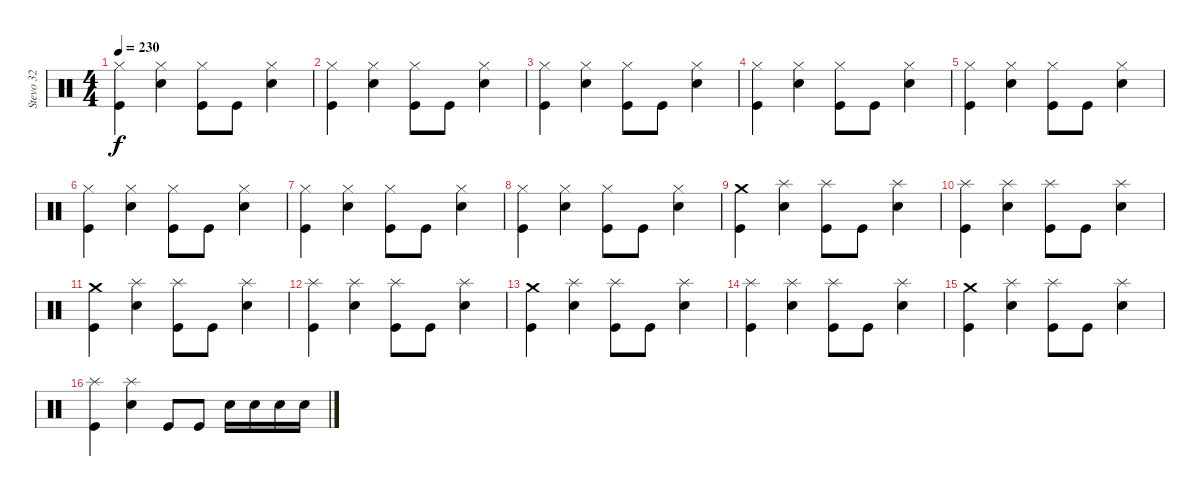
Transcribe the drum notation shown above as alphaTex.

\track ("Stevo 32" "Stevo 32") {instrument percussion}
\staff {score}
\articulation defaults
\ts (4 4)
\tempo 230
\clef neutral
\ks c
("Hi-Hat (closed)" "Kick (hit)").4{dy f} ("Hi-Hat (closed)" "Electric Snare (hit)").4 ("Hi-Hat (closed)" "Kick (hit)").8 "Kick (hit)".8 ("Hi-Hat (closed)" "Electric Snare (hit)").4 |
("Hi-Hat (closed)" "Kick (hit)").4 ("Hi-Hat (closed)" "Electric Snare (hit)").4 ("Hi-Hat (closed)" "Kick (hit)").8 "Kick (hit)".8 ("Hi-Hat (closed)" "Electric Snare (hit)").4 |
("Hi-Hat (closed)" "Kick (hit)").4 ("Hi-Hat (closed)" "Electric Snare (hit)").4 ("Hi-Hat (closed)" "Kick (hit)").8 "Kick (hit)".8 ("Hi-Hat (closed)" "Electric Snare (hit)").4 |
("Hi-Hat (closed)" "Kick (hit)").4 ("Hi-Hat (closed)" "Electric Snare (hit)").4 ("Hi-Hat (closed)" "Kick (hit)").8 "Kick (hit)".8 ("Hi-Hat (closed)" "Electric Snare (hit)").4 |
("Hi-Hat (closed)" "Kick (hit)").4 ("Hi-Hat (closed)" "Electric Snare (hit)").4 ("Hi-Hat (closed)" "Kick (hit)").8 "Kick (hit)".8 ("Hi-Hat (closed)" "Electric Snare (hit)").4 |
("Hi-Hat (closed)" "Kick (hit)").4 ("Hi-Hat (closed)" "Electric Snare (hit)").4 ("Hi-Hat (closed)" "Kick (hit)").8 "Kick (hit)".8 ("Hi-Hat (closed)" "Electric Snare (hit)").4 |
("Hi-Hat (closed)" "Kick (hit)").4 ("Hi-Hat (closed)" "Electric Snare (hit)").4 ("Hi-Hat (closed)" "Kick (hit)").8 "Kick (hit)".8 ("Hi-Hat (closed)" "Electric Snare (hit)").4 |
("Hi-Hat (closed)" "Kick (hit)").4 ("Hi-Hat (closed)" "Electric Snare (hit)").4 ("Hi-Hat (closed)" "Kick (hit)").8 "Kick (hit)".8 ("Hi-Hat (closed)" "Electric Snare (hit)").4 |
("Crash medium (hit)" "Kick (hit)").4 ("Splash (hit)" "Electric Snare (hit)").4 ("Splash (hit)" "Kick (hit)").8 "Kick (hit)".8 ("Splash (hit)" "Electric Snare (hit)").4 |
("Splash (hit)" "Kick (hit)").4 ("Splash (hit)" "Electric Snare (hit)").4 ("Splash (hit)" "Kick (hit)").8 "Kick (hit)".8 ("Splash (hit)" "Electric Snare (hit)").4 |
("Crash medium (hit)" "Kick (hit)").4 ("Splash (hit)" "Electric Snare (hit)").4 ("Splash (hit)" "Kick (hit)").8 "Kick (hit)".8 ("Splash (hit)" "Electric Snare (hit)").4 |
("Splash (hit)" "Kick (hit)").4 ("Splash (hit)" "Electric Snare (hit)").4 ("Splash (hit)" "Kick (hit)").8 "Kick (hit)".8 ("Splash (hit)" "Electric Snare (hit)").4 |
("Crash medium (hit)" "Kick (hit)").4 ("Splash (hit)" "Electric Snare (hit)").4 ("Splash (hit)" "Kick (hit)").8 "Kick (hit)".8 ("Splash (hit)" "Electric Snare (hit)").4 |
("Splash (hit)" "Kick (hit)").4 ("Splash (hit)" "Electric Snare (hit)").4 ("Splash (hit)" "Kick (hit)").8 "Kick (hit)".8 ("Splash (hit)" "Electric Snare (hit)").4 |
("Crash medium (hit)" "Kick (hit)").4 ("Splash (hit)" "Electric Snare (hit)").4 ("Splash (hit)" "Kick (hit)").8 "Kick (hit)".8 ("Splash (hit)" "Electric Snare (hit)").4 |
("Splash (hit)" "Kick (hit)").4 ("Splash (hit)" "Electric Snare (hit)").4 "Kick (hit)".8 "Kick (hit)".8 "Electric Snare (hit)".16 "Electric Snare (hit)".16 "Electric Snare (hit)".16 "Electric Snare (hit)".16
